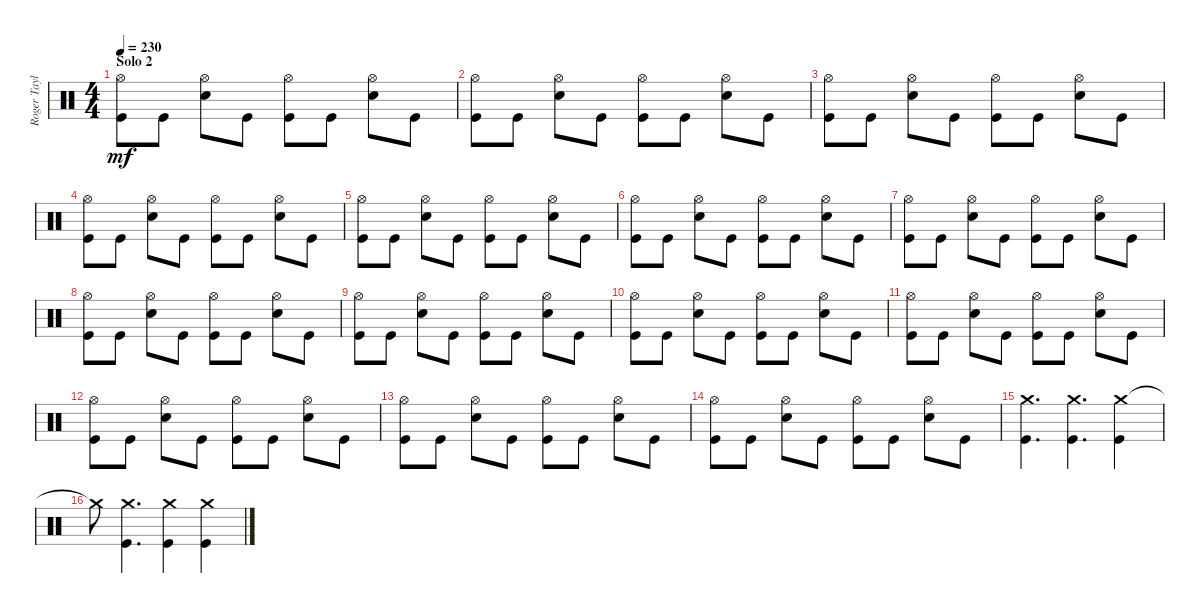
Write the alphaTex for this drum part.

\track ("Roger Taylor" "Roger Tayl") {instrument percussion}
\staff {score}
\articulation defaults
\ts (4 4)
\section ("" "Solo 2")
\tempo 230
\clef neutral
\ks c
("Hi-Hat (open)" "Kick (hit)").8{dy mf} "Kick (hit)".8 ("Snare (hit) 2" "Hi-Hat (open)").8 "Kick (hit)".8 ("Kick (hit)" "Hi-Hat (open)").8 "Kick (hit)".8 ("Snare (hit) 2" "Hi-Hat (open)").8 "Kick (hit)".8 |
("Hi-Hat (open)" "Kick (hit)").8 "Kick (hit)".8 ("Snare (hit) 2" "Hi-Hat (open)").8 "Kick (hit)".8 ("Kick (hit)" "Hi-Hat (open)").8 "Kick (hit)".8 ("Snare (hit) 2" "Hi-Hat (open)").8 "Kick (hit)".8 |
("Hi-Hat (open)" "Kick (hit)").8 "Kick (hit)".8 ("Snare (hit) 2" "Hi-Hat (open)").8 "Kick (hit)".8 ("Kick (hit)" "Hi-Hat (open)").8 "Kick (hit)".8 ("Snare (hit) 2" "Hi-Hat (open)").8 "Kick (hit)".8 |
("Hi-Hat (open)" "Kick (hit)").8 "Kick (hit)".8 ("Snare (hit) 2" "Hi-Hat (open)").8 "Kick (hit)".8 ("Kick (hit)" "Hi-Hat (open)").8 "Kick (hit)".8 ("Snare (hit) 2" "Hi-Hat (open)").8 "Kick (hit)".8 |
("Hi-Hat (open)" "Kick (hit)").8 "Kick (hit)".8 ("Snare (hit) 2" "Hi-Hat (open)").8 "Kick (hit)".8 ("Kick (hit)" "Hi-Hat (open)").8 "Kick (hit)".8 ("Snare (hit) 2" "Hi-Hat (open)").8 "Kick (hit)".8 |
("Hi-Hat (open)" "Kick (hit)").8 "Kick (hit)".8 ("Snare (hit) 2" "Hi-Hat (open)").8 "Kick (hit)".8 ("Kick (hit)" "Hi-Hat (open)").8 "Kick (hit)".8 ("Snare (hit) 2" "Hi-Hat (open)").8 "Kick (hit)".8 |
("Hi-Hat (open)" "Kick (hit)").8 "Kick (hit)".8 ("Snare (hit) 2" "Hi-Hat (open)").8 "Kick (hit)".8 ("Kick (hit)" "Hi-Hat (open)").8 "Kick (hit)".8 ("Snare (hit) 2" "Hi-Hat (open)").8 "Kick (hit)".8 |
("Hi-Hat (open)" "Kick (hit)").8 "Kick (hit)".8 ("Snare (hit) 2" "Hi-Hat (open)").8 "Kick (hit)".8 ("Kick (hit)" "Hi-Hat (open)").8 "Kick (hit)".8 ("Snare (hit) 2" "Hi-Hat (open)").8 "Kick (hit)".8 |
("Hi-Hat (open)" "Kick (hit)").8 "Kick (hit)".8 ("Snare (hit) 2" "Hi-Hat (open)").8 "Kick (hit)".8 ("Kick (hit)" "Hi-Hat (open)").8 "Kick (hit)".8 ("Snare (hit) 2" "Hi-Hat (open)").8 "Kick (hit)".8 |
("Hi-Hat (open)" "Kick (hit)").8 "Kick (hit)".8 ("Snare (hit) 2" "Hi-Hat (open)").8 "Kick (hit)".8 ("Kick (hit)" "Hi-Hat (open)").8 "Kick (hit)".8 ("Snare (hit) 2" "Hi-Hat (open)").8 "Kick (hit)".8 |
("Hi-Hat (open)" "Kick (hit)").8 "Kick (hit)".8 ("Snare (hit) 2" "Hi-Hat (open)").8 "Kick (hit)".8 ("Kick (hit)" "Hi-Hat (open)").8 "Kick (hit)".8 ("Snare (hit) 2" "Hi-Hat (open)").8 "Kick (hit)".8 |
("Hi-Hat (open)" "Kick (hit)").8 "Kick (hit)".8 ("Snare (hit) 2" "Hi-Hat (open)").8 "Kick (hit)".8 ("Kick (hit)" "Hi-Hat (open)").8 "Kick (hit)".8 ("Snare (hit) 2" "Hi-Hat (open)").8 "Kick (hit)".8 |
("Hi-Hat (open)" "Kick (hit)").8 "Kick (hit)".8 ("Snare (hit) 2" "Hi-Hat (open)").8 "Kick (hit)".8 ("Kick (hit)" "Hi-Hat (open)").8 "Kick (hit)".8 ("Snare (hit) 2" "Hi-Hat (open)").8 "Kick (hit)".8 |
("Hi-Hat (open)" "Kick (hit)").8 "Kick (hit)".8 ("Snare (hit) 2" "Hi-Hat (open)").8 "Kick (hit)".8 ("Kick (hit)" "Hi-Hat (open)").8 "Kick (hit)".8 ("Snare (hit) 2" "Hi-Hat (open)").8 "Kick (hit)".8 |
("Kick (hit)" "Crash medium (hit)").4{d} ("Crash medium (hit)" "Kick (hit)").4{d} ("Crash medium (hit)" "Kick (hit)").4 |
"Crash medium (hit)"{t}.8 ("Crash medium (hit)" "Kick (hit)").4{d} ("Crash medium (hit)" "Kick (hit)").4 ("Crash medium (hit)" "Kick (hit)").4
